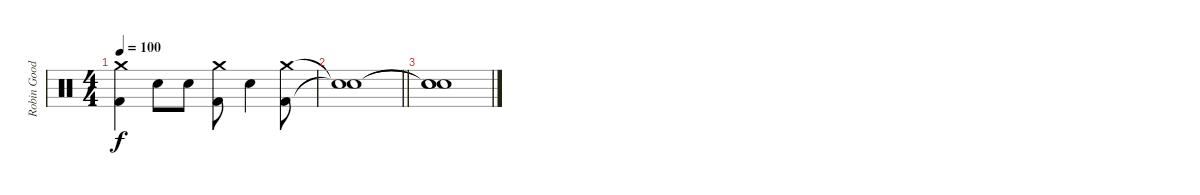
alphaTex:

\track ("Robin Goodridge: Drums" "Robin Good") {instrument percussion}
\staff {score}
\articulation defaults
\ts (4 4)
\tempo 100
\clef neutral
\ks c
("Crash medium (hit)" "Kick (hit) 2").4{dy f} "Electric Snare (hit)".8 "Electric Snare (hit)".8 ("Crash medium (hit)" "Kick (hit) 2").8 "Electric Snare (hit)".4 ("Crash medium (hit)" "Kick (hit) 2").8 |
\barLineRight lightlight
("Snare (hit)"{t} "Snare (hit)"{t}).1 |
("Snare (hit)"{t} "Snare (hit)"{t} "Snare (hit)").1
